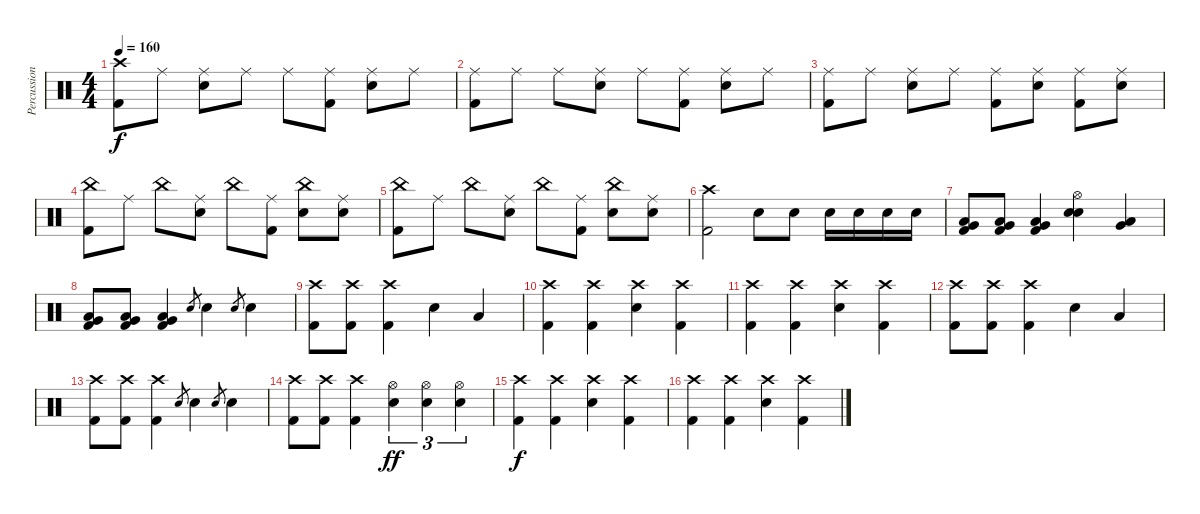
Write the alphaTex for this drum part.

\track ("Percussions" "Percussion") {instrument percussion}
\staff {score}
\articulation defaults
\ts (4 4)
\tempo 160
\clef neutral
\ks c
("Crash high (hit)" "Kick (hit) 2").8{dy f} "Ride (middle)".8 ("Ride (middle)" "Snare (hit) 2").8 "Ride (middle)".8 "Ride (middle)".8 ("Ride (middle)" "Kick (hit) 2").8 ("Ride (middle)" "Snare (hit) 2").8 "Ride (middle)".8 |
("Ride (middle)" "Kick (hit) 2").8 "Ride (middle)".8 "Ride (middle)".8 ("Ride (middle)" "Snare (hit) 2").8 "Ride (middle)".8 ("Ride (middle)" "Kick (hit) 2").8 ("Ride (middle)" "Snare (hit) 2").8 "Ride (middle)".8 |
("Ride (middle)" "Kick (hit) 2").8 "Ride (middle)".8 ("Ride (middle)" "Snare (hit) 2").8 "Ride (middle)".8 ("Ride (middle)" "Kick (hit) 2").8 ("Ride (middle)" "Snare (hit) 2").8 ("Ride (middle)" "Kick (hit) 2").8 ("Ride (middle)" "Snare (hit) 2").8 |
("China (hit)" "Kick (hit) 2").8 "Ride (middle)".8 "China (hit)".8 ("Ride (middle)" "Snare (hit) 2").8 "China (hit)".8 ("Ride (middle)" "Kick (hit) 2").8 ("China (hit)" "Snare (hit) 2").8 ("Ride (middle)" "Snare (hit) 2").8 |
("China (hit)" "Kick (hit) 2").8 "Ride (middle)".8 "China (hit)".8 ("Ride (middle)" "Snare (hit) 2").8 "China (hit)".8 ("Ride (middle)" "Kick (hit) 2").8 ("China (hit)" "Snare (hit) 2").8 ("Ride (middle)" "Snare (hit) 2").8 |
("Crash high (hit)" "Kick (hit) 2").2 "Snare (hit) 2".8 "Snare (hit) 2".8 "Snare (hit) 2".16 "Snare (hit) 2".16 "Snare (hit) 2".16 "Snare (hit) 2".16 |
("Low Tom (hit)" "Very Low Tom (hit)" "Kick (hit) 2").8 ("Low Tom (hit)" "Very Low Tom (hit)" "Kick (hit) 2").8 ("Low Tom (hit)" "Very Low Tom (hit)" "Kick (hit) 2").4 ("Hi-Hat (open)" "Electric Snare (hit)" "Snare (hit) 2").4 ("Very Low Tom (hit)" "Low Tom (hit)").4 |
("Low Tom (hit)" "Very Low Tom (hit)" "Kick (hit) 2").8 ("Low Tom (hit)" "Very Low Tom (hit)" "Kick (hit) 2").8 ("Low Tom (hit)" "Very Low Tom (hit)" "Kick (hit) 2").4 "Snare (hit) 2".8{gr} "Snare (hit) 2".4 "Snare (hit) 2".8{gr} "Snare (hit) 2".4 |
("Crash high (hit)" "Kick (hit) 2").8 ("Crash high (hit)" "Kick (hit) 2").8 ("Crash high (hit)" "Kick (hit) 2").4 "Snare (hit) 2".4 "Low Tom (hit)".4 |
("Crash high (hit)" "Kick (hit) 2").4 ("Crash high (hit)" "Kick (hit) 2").4 ("Crash high (hit)" "Snare (hit) 2").4 ("Crash high (hit)" "Kick (hit) 2").4 |
("Crash high (hit)" "Kick (hit) 2").4 ("Crash high (hit)" "Kick (hit) 2").4 ("Crash high (hit)" "Snare (hit) 2").4 ("Crash high (hit)" "Kick (hit) 2").4 |
("Crash high (hit)" "Kick (hit) 2").8 ("Crash high (hit)" "Kick (hit) 2").8 ("Crash high (hit)" "Kick (hit) 2").4 "Snare (hit) 2".4 "Low Tom (hit)".4 |
("Crash high (hit)" "Kick (hit) 2").8 ("Crash high (hit)" "Kick (hit) 2").8 ("Crash high (hit)" "Kick (hit) 2").4 "Snare (hit) 2".8{gr} "Snare (hit) 2".4 "Snare (hit) 2".8{gr} "Snare (hit) 2".4 |
("Crash high (hit)" "Kick (hit) 2").8 ("Crash high (hit)" "Kick (hit) 2").8 ("Crash high (hit)" "Kick (hit) 2").4 ("Hi-Hat (open)" "Snare (hit) 2").4{tu (3 2) dy ff} ("Hi-Hat (open)" "Snare (hit) 2").4{tu (3 2)} ("Hi-Hat (open)" "Snare (hit) 2").4{tu (3 2)} |
("Crash high (hit)" "Kick (hit) 2").4{dy f} ("Crash high (hit)" "Kick (hit) 2").4 ("Crash high (hit)" "Snare (hit) 2").4 ("Crash high (hit)" "Kick (hit) 2").4 |
("Crash high (hit)" "Kick (hit) 2").4 ("Crash high (hit)" "Kick (hit) 2").4 ("Crash high (hit)" "Snare (hit) 2").4 ("Crash high (hit)" "Kick (hit) 2").4
